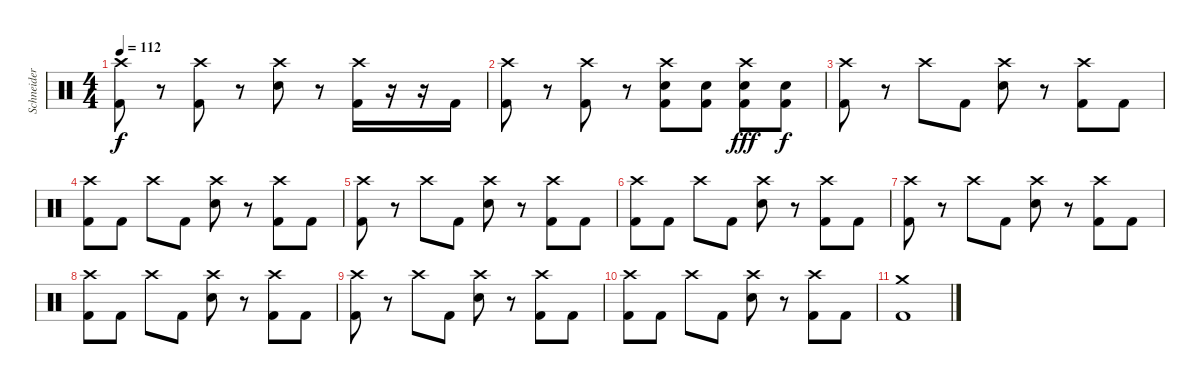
\track ("Schneider - Drums" "Schneider ") {instrument percussion}
\staff {score}
\articulation defaults
\ts (4 4)
\tempo 112
\clef neutral
\ks c
("Crash high (hit)" "Kick (hit) 2").8{dy f} r.8 ("Crash high (hit)" "Kick (hit) 2").8 r.8 ("Crash high (hit)" "Snare (hit) 2").8 r.8 ("Crash high (hit)" "Kick (hit) 2").16 r.16 r.16 "Kick (hit) 2".16 |
("Crash high (hit)" "Kick (hit) 2").8 r.8 ("Crash high (hit)" "Kick (hit) 2").8 r.8 ("Crash high (hit)" "Snare (hit) 2" "Kick (hit) 2").8 ("Snare (hit) 2" "Kick (hit) 2").8 ("Crash high (hit)" "Snare (hit) 2" "Kick (hit) 2").8{dy fff} ("Snare (hit) 2" "Kick (hit) 2").8{dy f} |
("Crash high (hit)" "Kick (hit) 2").8 r.8 "Crash high (hit)".8 "Kick (hit) 2".8 ("Crash high (hit)" "Snare (hit) 2").8 r.8 ("Crash high (hit)" "Kick (hit) 2").8 "Kick (hit) 2".8 |
("Crash high (hit)" "Kick (hit) 2").8 "Kick (hit) 2".8 "Crash high (hit)".8 "Kick (hit) 2".8 ("Crash high (hit)" "Snare (hit) 2").8 r.8 ("Crash high (hit)" "Kick (hit) 2").8 "Kick (hit) 2".8 |
("Crash high (hit)" "Kick (hit) 2").8 r.8 "Crash high (hit)".8 "Kick (hit) 2".8 ("Crash high (hit)" "Snare (hit) 2").8 r.8 ("Crash high (hit)" "Kick (hit) 2").8 "Kick (hit) 2".8 |
("Crash high (hit)" "Kick (hit) 2").8 "Kick (hit) 2".8 "Crash high (hit)".8 "Kick (hit) 2".8 ("Crash high (hit)" "Snare (hit) 2").8 r.8 ("Crash high (hit)" "Kick (hit) 2").8 "Kick (hit) 2".8 |
("Crash high (hit)" "Kick (hit) 2").8 r.8 "Crash high (hit)".8 "Kick (hit) 2".8 ("Crash high (hit)" "Snare (hit) 2").8 r.8 ("Crash high (hit)" "Kick (hit) 2").8 "Kick (hit) 2".8 |
("Crash high (hit)" "Kick (hit) 2").8 "Kick (hit) 2".8 "Crash high (hit)".8 "Kick (hit) 2".8 ("Crash high (hit)" "Snare (hit) 2").8 r.8 ("Crash high (hit)" "Kick (hit) 2").8 "Kick (hit) 2".8 |
("Crash high (hit)" "Kick (hit) 2").8 r.8 "Crash high (hit)".8 "Kick (hit) 2".8 ("Crash high (hit)" "Snare (hit) 2").8 r.8 ("Crash high (hit)" "Kick (hit) 2").8 "Kick (hit) 2".8 |
("Crash high (hit)" "Kick (hit) 2").8 "Kick (hit) 2".8 "Crash high (hit)".8 "Kick (hit) 2".8 ("Crash high (hit)" "Snare (hit) 2").8 r.8 ("Crash high (hit)" "Kick (hit) 2").8 "Kick (hit) 2".8 |
("Crash medium (hit)" "Kick (hit) 2").1
